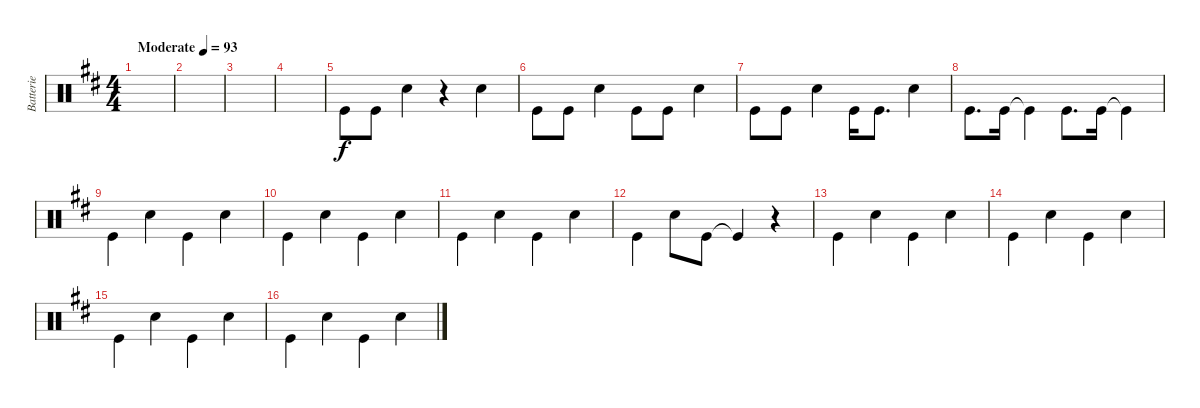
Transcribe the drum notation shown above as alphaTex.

\track ("Batterie" "Batterie") {instrument percussion}
\staff {score}
\articulation defaults
\ts (4 4)
\tempo (93 "Moderate")
\clef neutral
\ks d
|
|
|
|
"Kick (hit)".8{beam Down} "Kick (hit)".8{beam Down} "Snare (hit) 2".4 r.4 "Snare (hit) 2".4 |
"Kick (hit)".8{beam Down} "Kick (hit)".8{beam Down} "Snare (hit) 2".4 "Kick (hit)".8{beam Down} "Kick (hit)".8{beam Down} "Snare (hit) 2".4 |
"Kick (hit)".8{beam Down} "Kick (hit)".8{beam Down} "Snare (hit) 2".4 "Kick (hit)".16{beam Down} "Kick (hit)".8{d beam Down} "Snare (hit) 2".4 |
"Kick (hit)".8{d beam Down} "Kick (hit)".16{beam Down} "Kick (hit)"{t}.4{beam Down} "Kick (hit)".8{d beam Down} "Kick (hit)".16{beam Down} "Kick (hit)"{t}.4{beam Down} |
"Kick (hit)".4{beam Down} "Snare (hit) 2".4 "Kick (hit)".4{beam Down} "Snare (hit) 2".4 |
"Kick (hit)".4{beam Down} "Snare (hit) 2".4 "Kick (hit)".4{beam Down} "Snare (hit) 2".4 |
"Kick (hit)".4{beam Down} "Snare (hit) 2".4 "Kick (hit)".4{beam Down} "Snare (hit) 2".4 |
"Kick (hit)".4{beam Down} "Snare (hit) 2".8{beam Down} "Kick (hit)".8{beam Down} "Kick (hit)"{t}.4 r.4 |
"Kick (hit)".4{beam Down} "Snare (hit) 2".4 "Kick (hit)".4{beam Down} "Snare (hit) 2".4 |
"Kick (hit)".4{beam Down} "Snare (hit) 2".4 "Kick (hit)".4{beam Down} "Snare (hit) 2".4 |
"Kick (hit)".4{beam Down} "Snare (hit) 2".4 "Kick (hit)".4{beam Down} "Snare (hit) 2".4 |
"Kick (hit)".4{beam Down} "Snare (hit) 2".4 "Kick (hit)".4{beam Down} "Snare (hit) 2".4
